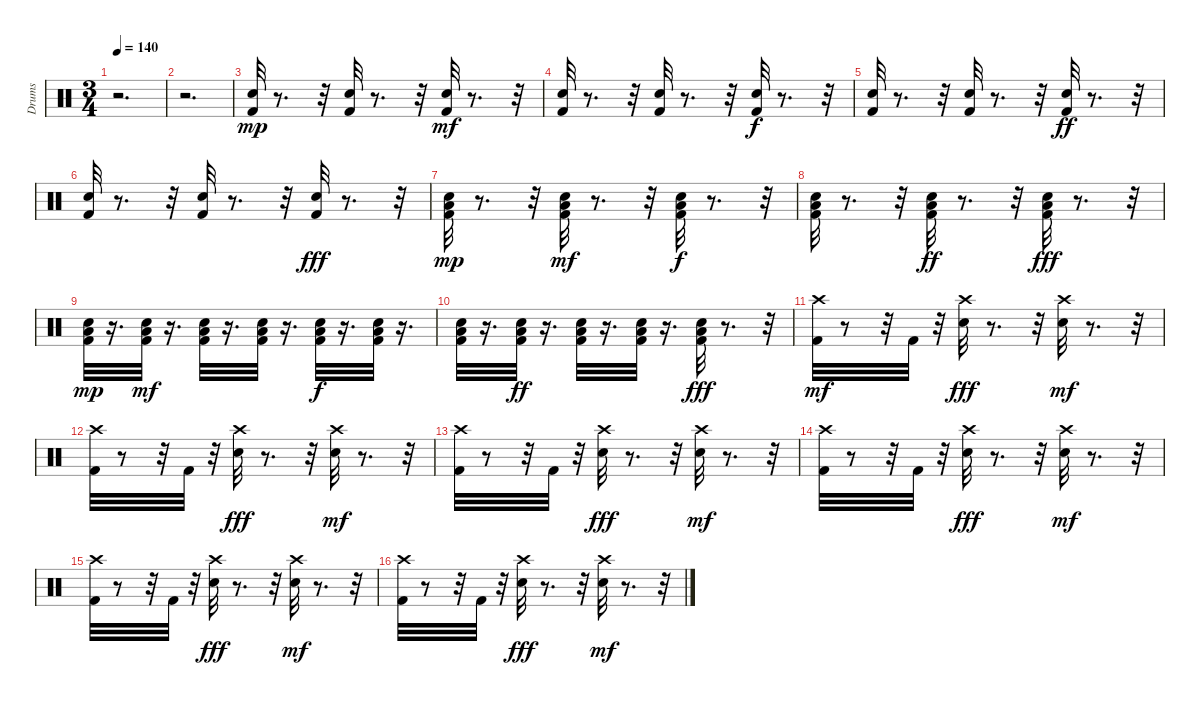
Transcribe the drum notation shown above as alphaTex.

\track ("Drums" "Drums") {instrument percussion}
\staff {score}
\articulation defaults
\ts (3 4)
\tempo 140
\clef neutral
\ks c
r.2{d dy mf} |
r.2{d} |
("Snare (hit) 2" "Kick (hit) 2").32{dy mp} r.8{d} r.32 ("Kick (hit) 2" "Snare (hit) 2").32 r.8{d} r.32 ("Kick (hit) 2" "Snare (hit) 2").32{dy mf} r.8{d} r.32 |
("Snare (hit) 2" "Kick (hit) 2").32 r.8{d} r.32 ("Kick (hit) 2" "Snare (hit) 2").32 r.8{d} r.32 ("Snare (hit) 2" "Kick (hit) 2").32{dy f} r.8{d} r.32 |
("Kick (hit) 2" "Snare (hit) 2").32 r.8{d} r.32 ("Snare (hit) 2" "Kick (hit) 2").32 r.8{d} r.32 ("Snare (hit) 2" "Kick (hit) 2").32{dy ff} r.8{d} r.32 |
("Snare (hit) 2" "Kick (hit) 2").32 r.8{d} r.32 ("Snare (hit) 2" "Kick (hit) 2").32 r.8{d} r.32 ("Snare (hit) 2" "Kick (hit) 2").32{dy fff} r.8{d} r.32 |
("Low Floor Tom (hit)" "Snare (hit) 2" "Kick (hit) 2").32{dy mp} r.8{d} r.32 ("Low Floor Tom (hit)" "Snare (hit) 2" "Kick (hit) 2").32{dy mf} r.8{d} r.32 ("Low Floor Tom (hit)" "Snare (hit) 2" "Kick (hit) 2").32{dy f} r.8{d} r.32 |
("Low Floor Tom (hit)" "Snare (hit) 2" "Kick (hit) 2").32 r.8{d} r.32 ("Low Floor Tom (hit)" "Snare (hit) 2" "Kick (hit) 2").32{dy ff} r.8{d} r.32 ("Low Floor Tom (hit)" "Snare (hit) 2" "Kick (hit) 2").32{dy fff} r.8{d} r.32 |
("Low Floor Tom (hit)" "Snare (hit) 2" "Kick (hit) 2").32{dy mp} r.16{d} ("Kick (hit) 2" "Snare (hit) 2" "Low Floor Tom (hit)").32{dy mf} r.16{d} ("Low Floor Tom (hit)" "Snare (hit) 2" "Kick (hit) 2").32 r.16{d} ("Kick (hit) 2" "Snare (hit) 2" "Low Floor Tom (hit)").32 r.16{d} ("Low Floor Tom (hit)" "Snare (hit) 2" "Kick (hit) 2").32{dy f} r.16{d} ("Kick (hit) 2" "Snare (hit) 2" "Low Floor Tom (hit)").32 r.16{d} |
("Kick (hit) 2" "Snare (hit) 2" "Low Floor Tom (hit)").32 r.16{d} ("Kick (hit) 2" "Snare (hit) 2" "Low Floor Tom (hit)").32{dy ff} r.16{d} ("Kick (hit) 2" "Snare (hit) 2" "Low Floor Tom (hit)").32 r.16{d} ("Kick (hit) 2" "Snare (hit) 2" "Low Floor Tom (hit)").32 r.16{d} ("Kick (hit) 2" "Snare (hit) 2" "Low Floor Tom (hit)").32{dy fff} r.8{d} r.32 |
("Kick (hit) 2" "Crash high (hit)").32{dy mf} r.8 r.32 "Kick (hit) 2".32 r.32 ("Snare (hit) 2" "Crash high (hit)").32{dy fff} r.8{d} r.32 ("Snare (hit) 2" "Crash high (hit)").32{dy mf} r.8{d} r.32 |
("Kick (hit) 2" "Crash high (hit)").32 r.8 r.32 "Kick (hit) 2".32 r.32 ("Snare (hit) 2" "Crash high (hit)").32{dy fff} r.8{d} r.32 ("Snare (hit) 2" "Crash high (hit)").32{dy mf} r.8{d} r.32 |
("Kick (hit) 2" "Crash high (hit)").32 r.8 r.32 "Kick (hit) 2".32 r.32 ("Snare (hit) 2" "Crash high (hit)").32{dy fff} r.8{d} r.32 ("Snare (hit) 2" "Crash high (hit)").32{dy mf} r.8{d} r.32 |
("Kick (hit) 2" "Crash high (hit)").32 r.8 r.32 "Kick (hit) 2".32 r.32 ("Snare (hit) 2" "Crash high (hit)").32{dy fff} r.8{d} r.32 ("Snare (hit) 2" "Crash high (hit)").32{dy mf} r.8{d} r.32 |
("Kick (hit) 2" "Crash high (hit)").32 r.8 r.32 "Kick (hit) 2".32 r.32 ("Snare (hit) 2" "Crash high (hit)").32{dy fff} r.8{d} r.32 ("Snare (hit) 2" "Crash high (hit)").32{dy mf} r.8{d} r.32 |
("Kick (hit) 2" "Crash high (hit)").32 r.8 r.32 "Kick (hit) 2".32 r.32 ("Snare (hit) 2" "Crash high (hit)").32{dy fff} r.8{d} r.32 ("Snare (hit) 2" "Crash high (hit)").32{dy mf} r.8{d} r.32
